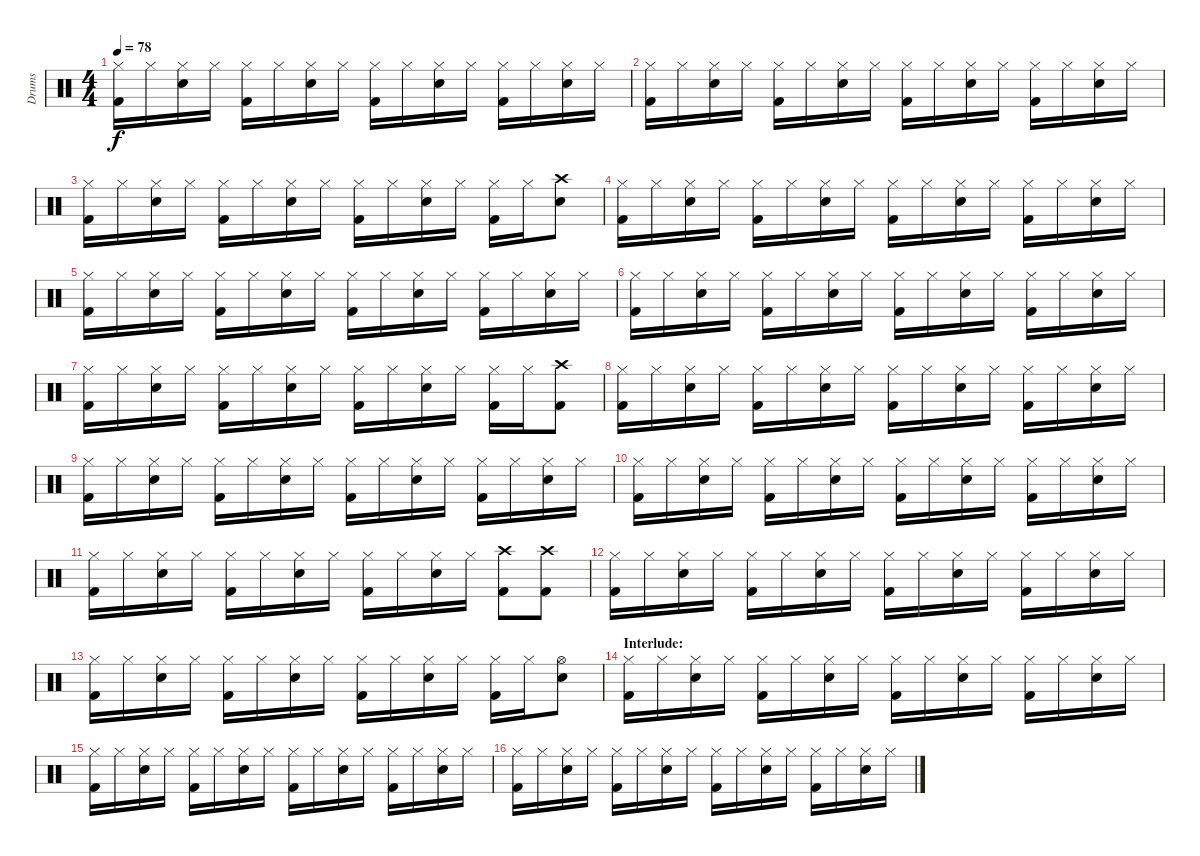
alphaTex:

\track ("Drums" "Drums") {instrument percussion}
\staff {score}
\articulation defaults
\ts (4 4)
\tempo 78
\clef neutral
\ks c
("Hi-Hat (closed)" "Kick (hit) 2").16{dy f} "Hi-Hat (closed)".16 ("Hi-Hat (closed)" "Snare (hit) 2").16 "Hi-Hat (closed)".16 ("Hi-Hat (closed)" "Kick (hit) 2").16 "Hi-Hat (closed)".16 ("Hi-Hat (closed)" "Snare (hit) 2").16 "Hi-Hat (closed)".16 ("Hi-Hat (closed)" "Kick (hit) 2").16 "Hi-Hat (closed)".16 ("Hi-Hat (closed)" "Snare (hit) 2").16 "Hi-Hat (closed)".16 ("Hi-Hat (closed)" "Kick (hit) 2").16 "Hi-Hat (closed)".16 ("Hi-Hat (closed)" "Snare (hit) 2").16 "Hi-Hat (closed)".16 |
("Hi-Hat (closed)" "Kick (hit) 2").16 "Hi-Hat (closed)".16 ("Hi-Hat (closed)" "Snare (hit) 2").16 "Hi-Hat (closed)".16 ("Hi-Hat (closed)" "Kick (hit) 2").16 "Hi-Hat (closed)".16 ("Hi-Hat (closed)" "Snare (hit) 2").16 "Hi-Hat (closed)".16 ("Hi-Hat (closed)" "Kick (hit) 2").16 "Hi-Hat (closed)".16 ("Hi-Hat (closed)" "Snare (hit) 2").16 "Hi-Hat (closed)".16 ("Hi-Hat (closed)" "Kick (hit) 2").16 "Hi-Hat (closed)".16 ("Hi-Hat (closed)" "Snare (hit) 2").16 "Hi-Hat (closed)".16 |
("Hi-Hat (closed)" "Kick (hit) 2").16 "Hi-Hat (closed)".16 ("Hi-Hat (closed)" "Snare (hit) 2").16 "Hi-Hat (closed)".16 ("Hi-Hat (closed)" "Kick (hit) 2").16 "Hi-Hat (closed)".16 ("Hi-Hat (closed)" "Snare (hit) 2").16 "Hi-Hat (closed)".16 ("Hi-Hat (closed)" "Kick (hit) 2").16 "Hi-Hat (closed)".16 ("Hi-Hat (closed)" "Snare (hit) 2").16 "Hi-Hat (closed)".16 ("Hi-Hat (closed)" "Kick (hit) 2").16 "Hi-Hat (closed)".16 ("Crash high (hit)" "Snare (hit) 2").8 |
("Hi-Hat (closed)" "Kick (hit) 2").16 "Hi-Hat (closed)".16 ("Hi-Hat (closed)" "Snare (hit) 2").16 "Hi-Hat (closed)".16 ("Hi-Hat (closed)" "Kick (hit) 2").16 "Hi-Hat (closed)".16 ("Hi-Hat (closed)" "Snare (hit) 2").16 "Hi-Hat (closed)".16 ("Hi-Hat (closed)" "Kick (hit) 2").16 "Hi-Hat (closed)".16 ("Hi-Hat (closed)" "Snare (hit) 2").16 "Hi-Hat (closed)".16 ("Hi-Hat (closed)" "Kick (hit) 2").16 "Hi-Hat (closed)".16 ("Hi-Hat (closed)" "Snare (hit) 2").16 "Hi-Hat (closed)".16 |
("Hi-Hat (closed)" "Kick (hit) 2").16 "Hi-Hat (closed)".16 ("Hi-Hat (closed)" "Snare (hit) 2").16 "Hi-Hat (closed)".16 ("Hi-Hat (closed)" "Kick (hit) 2").16 "Hi-Hat (closed)".16 ("Hi-Hat (closed)" "Snare (hit) 2").16 "Hi-Hat (closed)".16 ("Hi-Hat (closed)" "Kick (hit) 2").16 "Hi-Hat (closed)".16 ("Hi-Hat (closed)" "Snare (hit) 2").16 "Hi-Hat (closed)".16 ("Hi-Hat (closed)" "Kick (hit) 2").16 "Hi-Hat (closed)".16 ("Hi-Hat (closed)" "Snare (hit) 2").16 "Hi-Hat (closed)".16 |
("Hi-Hat (closed)" "Kick (hit) 2").16 "Hi-Hat (closed)".16 ("Hi-Hat (closed)" "Snare (hit) 2").16 "Hi-Hat (closed)".16 ("Hi-Hat (closed)" "Kick (hit) 2").16 "Hi-Hat (closed)".16 ("Hi-Hat (closed)" "Snare (hit) 2").16 "Hi-Hat (closed)".16 ("Hi-Hat (closed)" "Kick (hit) 2").16 "Hi-Hat (closed)".16 ("Hi-Hat (closed)" "Snare (hit) 2").16 "Hi-Hat (closed)".16 ("Hi-Hat (closed)" "Kick (hit) 2").16 "Hi-Hat (closed)".16 ("Hi-Hat (closed)" "Snare (hit) 2").16 "Hi-Hat (closed)".16 |
("Hi-Hat (closed)" "Kick (hit) 2").16 "Hi-Hat (closed)".16 ("Hi-Hat (closed)" "Snare (hit) 2").16 "Hi-Hat (closed)".16 ("Hi-Hat (closed)" "Kick (hit) 2").16 "Hi-Hat (closed)".16 ("Hi-Hat (closed)" "Snare (hit) 2").16 "Hi-Hat (closed)".16 ("Hi-Hat (closed)" "Kick (hit) 2").16 "Hi-Hat (closed)".16 ("Hi-Hat (closed)" "Snare (hit) 2").16 "Hi-Hat (closed)".16 ("Hi-Hat (closed)" "Kick (hit) 2").16 "Hi-Hat (closed)".16 ("Crash high (hit)" "Kick (hit) 2").8 |
("Hi-Hat (closed)" "Kick (hit) 2").16 "Hi-Hat (closed)".16 ("Hi-Hat (closed)" "Snare (hit) 2").16 "Hi-Hat (closed)".16 ("Hi-Hat (closed)" "Kick (hit) 2").16 "Hi-Hat (closed)".16 ("Hi-Hat (closed)" "Snare (hit) 2").16 "Hi-Hat (closed)".16 ("Hi-Hat (closed)" "Kick (hit) 2").16 "Hi-Hat (closed)".16 ("Hi-Hat (closed)" "Snare (hit) 2").16 "Hi-Hat (closed)".16 ("Hi-Hat (closed)" "Kick (hit) 2").16 "Hi-Hat (closed)".16 ("Hi-Hat (closed)" "Snare (hit) 2").16 "Hi-Hat (closed)".16 |
("Hi-Hat (closed)" "Kick (hit) 2").16 "Hi-Hat (closed)".16 ("Hi-Hat (closed)" "Snare (hit) 2").16 "Hi-Hat (closed)".16 ("Hi-Hat (closed)" "Kick (hit) 2").16 "Hi-Hat (closed)".16 ("Hi-Hat (closed)" "Snare (hit) 2").16 "Hi-Hat (closed)".16 ("Hi-Hat (closed)" "Kick (hit) 2").16 "Hi-Hat (closed)".16 ("Hi-Hat (closed)" "Snare (hit) 2").16 "Hi-Hat (closed)".16 ("Hi-Hat (closed)" "Kick (hit) 2").16 "Hi-Hat (closed)".16 ("Hi-Hat (closed)" "Snare (hit) 2").16 "Hi-Hat (closed)".16 |
("Hi-Hat (closed)" "Kick (hit) 2").16 "Hi-Hat (closed)".16 ("Hi-Hat (closed)" "Snare (hit) 2").16 "Hi-Hat (closed)".16 ("Hi-Hat (closed)" "Kick (hit) 2").16 "Hi-Hat (closed)".16 ("Hi-Hat (closed)" "Snare (hit) 2").16 "Hi-Hat (closed)".16 ("Hi-Hat (closed)" "Kick (hit) 2").16 "Hi-Hat (closed)".16 ("Hi-Hat (closed)" "Snare (hit) 2").16 "Hi-Hat (closed)".16 ("Hi-Hat (closed)" "Kick (hit) 2").16 "Hi-Hat (closed)".16 ("Hi-Hat (closed)" "Snare (hit) 2").16 "Hi-Hat (closed)".16 |
("Hi-Hat (closed)" "Kick (hit) 2").16 "Hi-Hat (closed)".16 ("Hi-Hat (closed)" "Snare (hit) 2").16 "Hi-Hat (closed)".16 ("Hi-Hat (closed)" "Kick (hit) 2").16 "Hi-Hat (closed)".16 ("Hi-Hat (closed)" "Snare (hit) 2").16 "Hi-Hat (closed)".16 ("Hi-Hat (closed)" "Kick (hit) 2").16 "Hi-Hat (closed)".16 ("Hi-Hat (closed)" "Snare (hit) 2").16 "Hi-Hat (closed)".16 ("Crash high (hit)" "Kick (hit) 2").8 ("Crash high (hit)" "Kick (hit) 2").8 |
("Hi-Hat (closed)" "Kick (hit) 2").16 "Hi-Hat (closed)".16 ("Hi-Hat (closed)" "Snare (hit) 2").16 "Hi-Hat (closed)".16 ("Hi-Hat (closed)" "Kick (hit) 2").16 "Hi-Hat (closed)".16 ("Hi-Hat (closed)" "Snare (hit) 2").16 "Hi-Hat (closed)".16 ("Hi-Hat (closed)" "Kick (hit) 2").16 "Hi-Hat (closed)".16 ("Hi-Hat (closed)" "Snare (hit) 2").16 "Hi-Hat (closed)".16 ("Hi-Hat (closed)" "Kick (hit) 2").16 "Hi-Hat (closed)".16 ("Hi-Hat (closed)" "Snare (hit) 2").16 "Hi-Hat (closed)".16 |
("Hi-Hat (closed)" "Kick (hit) 2").16 "Hi-Hat (closed)".16 ("Hi-Hat (closed)" "Snare (hit) 2").16 "Hi-Hat (closed)".16 ("Hi-Hat (closed)" "Kick (hit) 2").16 "Hi-Hat (closed)".16 ("Hi-Hat (closed)" "Snare (hit) 2").16 "Hi-Hat (closed)".16 ("Hi-Hat (closed)" "Kick (hit) 2").16 "Hi-Hat (closed)".16 ("Hi-Hat (closed)" "Snare (hit) 2").16 "Hi-Hat (closed)".16 ("Hi-Hat (closed)" "Kick (hit) 2").16 "Hi-Hat (closed)".16 ("Hi-Hat (open)" "Snare (hit) 2").8 |
\section ("" "Interlude:")
("Hi-Hat (closed)" "Kick (hit) 2").16 "Hi-Hat (closed)".16 ("Hi-Hat (closed)" "Snare (hit) 2").16 "Hi-Hat (closed)".16 ("Hi-Hat (closed)" "Kick (hit) 2").16 "Hi-Hat (closed)".16 ("Hi-Hat (closed)" "Snare (hit) 2").16 "Hi-Hat (closed)".16 ("Hi-Hat (closed)" "Kick (hit) 2").16 "Hi-Hat (closed)".16 ("Hi-Hat (closed)" "Snare (hit) 2").16 "Hi-Hat (closed)".16 ("Hi-Hat (closed)" "Kick (hit) 2").16 "Hi-Hat (closed)".16 ("Hi-Hat (closed)" "Snare (hit) 2").16 "Hi-Hat (closed)".16 |
("Hi-Hat (closed)" "Kick (hit) 2").16 "Hi-Hat (closed)".16 ("Hi-Hat (closed)" "Snare (hit) 2").16 "Hi-Hat (closed)".16 ("Hi-Hat (closed)" "Kick (hit) 2").16 "Hi-Hat (closed)".16 ("Hi-Hat (closed)" "Snare (hit) 2").16 "Hi-Hat (closed)".16 ("Hi-Hat (closed)" "Kick (hit) 2").16 "Hi-Hat (closed)".16 ("Hi-Hat (closed)" "Snare (hit) 2").16 "Hi-Hat (closed)".16 ("Hi-Hat (closed)" "Kick (hit) 2").16 "Hi-Hat (closed)".16 ("Hi-Hat (closed)" "Snare (hit) 2").16 "Hi-Hat (closed)".16 |
("Hi-Hat (closed)" "Kick (hit) 2").16 "Hi-Hat (closed)".16 ("Hi-Hat (closed)" "Snare (hit) 2").16 "Hi-Hat (closed)".16 ("Hi-Hat (closed)" "Kick (hit) 2").16 "Hi-Hat (closed)".16 ("Hi-Hat (closed)" "Snare (hit) 2").16 "Hi-Hat (closed)".16 ("Hi-Hat (closed)" "Kick (hit) 2").16 "Hi-Hat (closed)".16 ("Hi-Hat (closed)" "Snare (hit) 2").16 "Hi-Hat (closed)".16 ("Hi-Hat (closed)" "Kick (hit) 2").16 "Hi-Hat (closed)".16 ("Hi-Hat (closed)" "Snare (hit) 2").16 "Hi-Hat (closed)".16
